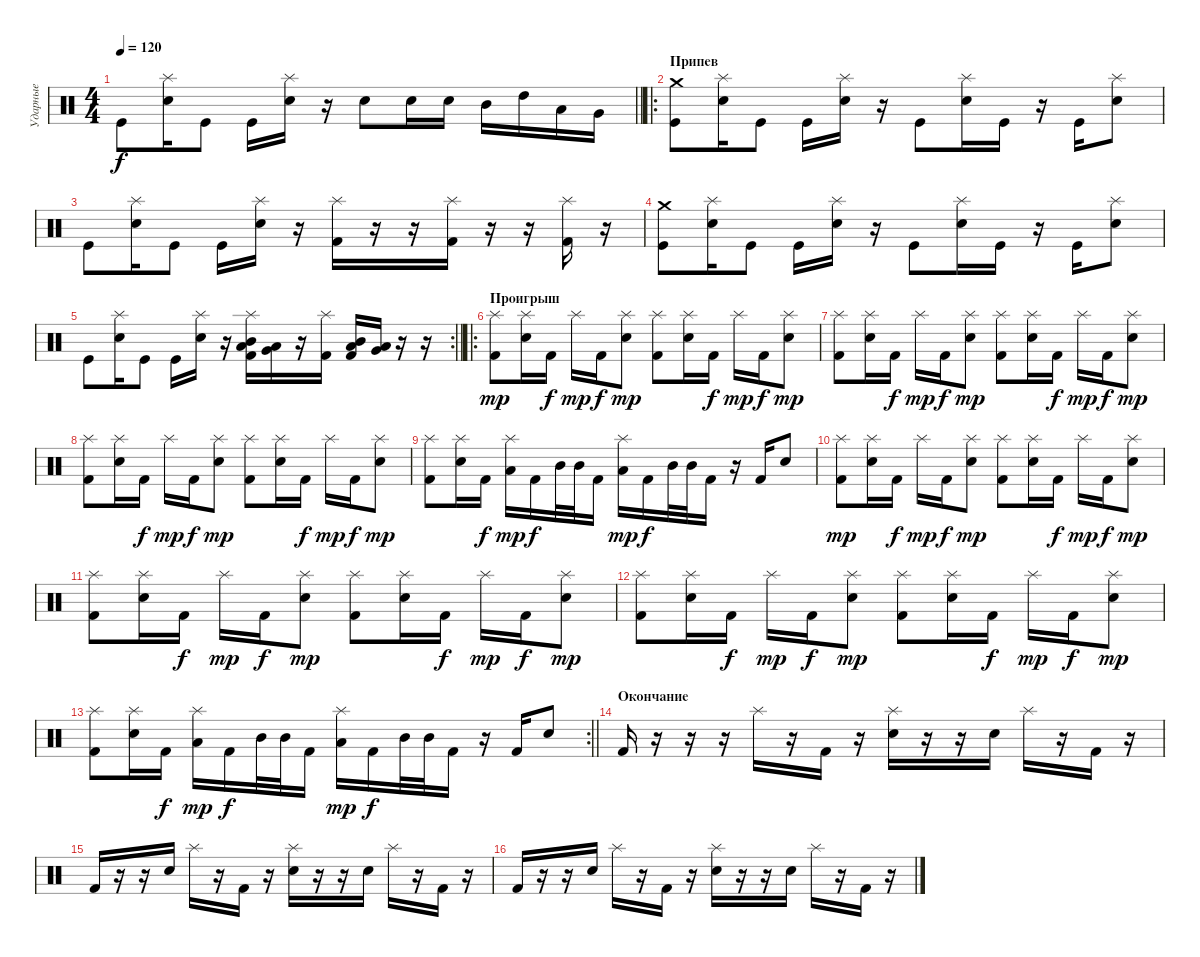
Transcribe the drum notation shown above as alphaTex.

\track ("Ударные" "Ударные") {instrument percussion}
\staff {score}
\articulation defaults
\ts (4 4)
\tempo 120
\clef neutral
\barLineRight lightlight
\ks c "Kick (hit)".8{dy f}
("Splash (hit)" "Electric Snare (hit)").16 "Kick (hit)".8 "Kick (hit)".16 ("Splash (hit)" "Electric Snare (hit)").16 r.16 "Electric Snare (hit)".8 "Electric Snare (hit)".16 "Electric Snare (hit)".16 "Mid Tom (hit)".16 "High Tom (hit)".16 "Low Tom (hit)".16 "Very Low Tom (hit)".16 |
\ro
\section ("" "Припев")
("Crash medium (hit)" "Kick (hit)").8 ("Splash (hit)" "Electric Snare (hit)").16 "Kick (hit)".8 "Kick (hit)".16 ("Splash (hit)" "Electric Snare (hit)").16 r.16 "Kick (hit)".8 ("Splash (hit)" "Electric Snare (hit)").16 "Kick (hit)".16 r.16 "Kick (hit)".16 ("Splash (hit)" "Electric Snare (hit)").8 |
"Kick (hit)".8 ("Splash (hit)" "Electric Snare (hit)").16 "Kick (hit)".8 "Kick (hit)".16 ("Splash (hit)" "Electric Snare (hit)").16 r.16 ("Splash (hit)" "Kick (hit) 2").16 r.16 r.16 ("Splash (hit)" "Kick (hit) 2").16 r.16 r.16 ("Splash (hit)" "Kick (hit) 2").16 r.16 |
("Crash medium (hit)" "Kick (hit)").8 ("Splash (hit)" "Electric Snare (hit)").16 "Kick (hit)".8 "Kick (hit)".16 ("Splash (hit)" "Electric Snare (hit)").16 r.16 "Kick (hit)".8 ("Splash (hit)" "Electric Snare (hit)").16 "Kick (hit)".16 r.16 "Kick (hit)".16 ("Splash (hit)" "Electric Snare (hit)").8 |
\rc 2
\barLineRight lightlight "Kick (hit)".8
("Splash (hit)" "Electric Snare (hit)").16 "Kick (hit)".8 "Kick (hit)".16 ("Splash (hit)" "Electric Snare (hit)").16 r.16 ("Splash (hit)" "Mid Tom (hit)" "Low Tom (hit)" "Kick (hit) 2").16 ("Low Tom (hit)" "Very Low Tom (hit)").16 r.16 ("Splash (hit)" "Kick (hit) 2").16 ("Mid Tom (hit)" "Low Tom (hit)" "Kick (hit) 2").16 ("Low Tom (hit)" "Very Low Tom (hit)").16 r.16 r.16 |
\ro
\section ("" "Проигрыш")
("Splash (hit)" "Kick (hit) 2").8{dy mp} ("Splash (hit)" "Electric Snare (hit)").16 "Kick (hit) 2".16{dy f} "Splash (hit)".16{dy mp} "Kick (hit) 2".16{dy f} ("Splash (hit)" "Electric Snare (hit)").8{dy mp} ("Splash (hit)" "Kick (hit) 2").8 ("Splash (hit)" "Electric Snare (hit)").16 "Kick (hit) 2".16{dy f} "Splash (hit)".16{dy mp} "Kick (hit) 2".16{dy f} ("Splash (hit)" "Electric Snare (hit)").8{dy mp} |
("Splash (hit)" "Kick (hit) 2").8 ("Splash (hit)" "Electric Snare (hit)").16 "Kick (hit) 2".16{dy f} "Splash (hit)".16{dy mp} "Kick (hit) 2".16{dy f} ("Splash (hit)" "Electric Snare (hit)").8{dy mp} ("Splash (hit)" "Kick (hit) 2").8 ("Splash (hit)" "Electric Snare (hit)").16 "Kick (hit) 2".16{dy f} "Splash (hit)".16{dy mp} "Kick (hit) 2".16{dy f} ("Splash (hit)" "Electric Snare (hit)").8{dy mp} |
("Splash (hit)" "Kick (hit) 2").8 ("Splash (hit)" "Electric Snare (hit)").16 "Kick (hit) 2".16{dy f} "Splash (hit)".16{dy mp} "Kick (hit) 2".16{dy f} ("Splash (hit)" "Electric Snare (hit)").8{dy mp} ("Splash (hit)" "Kick (hit) 2").8 ("Splash (hit)" "Electric Snare (hit)").16 "Kick (hit) 2".16{dy f} "Splash (hit)".16{dy mp} "Kick (hit) 2".16{dy f} ("Splash (hit)" "Electric Snare (hit)").8{dy mp} |
("Splash (hit)" "Kick (hit) 2").8 ("Splash (hit)" "Electric Snare (hit)").16 "Kick (hit) 2".16{dy f} ("Splash (hit)" "Low Tom (hit)").16{dy mp} "Kick (hit) 2".16{dy f} "Mid Tom (hit)".32 "Mid Tom (hit)".32 "Kick (hit) 2".16 ("Splash (hit)" "Low Tom (hit)").16{dy mp} "Kick (hit) 2".16{dy f} "Mid Tom (hit)".32 "Mid Tom (hit)".32 "Kick (hit) 2".16 r.16 "Kick (hit) 2".16 "Electric Snare (hit)".8 |
("Splash (hit)" "Kick (hit) 2").8{dy mp} ("Splash (hit)" "Electric Snare (hit)").16 "Kick (hit) 2".16{dy f} "Splash (hit)".16{dy mp} "Kick (hit) 2".16{dy f} ("Splash (hit)" "Electric Snare (hit)").8{dy mp} ("Splash (hit)" "Kick (hit) 2").8 ("Splash (hit)" "Electric Snare (hit)").16 "Kick (hit) 2".16{dy f} "Splash (hit)".16{dy mp} "Kick (hit) 2".16{dy f} ("Splash (hit)" "Electric Snare (hit)").8{dy mp} |
("Splash (hit)" "Kick (hit) 2").8 ("Splash (hit)" "Electric Snare (hit)").16 "Kick (hit) 2".16{dy f} "Splash (hit)".16{dy mp} "Kick (hit) 2".16{dy f} ("Splash (hit)" "Electric Snare (hit)").8{dy mp} ("Splash (hit)" "Kick (hit) 2").8 ("Splash (hit)" "Electric Snare (hit)").16 "Kick (hit) 2".16{dy f} "Splash (hit)".16{dy mp} "Kick (hit) 2".16{dy f} ("Splash (hit)" "Electric Snare (hit)").8{dy mp} |
("Splash (hit)" "Kick (hit) 2").8 ("Splash (hit)" "Electric Snare (hit)").16 "Kick (hit) 2".16{dy f} "Splash (hit)".16{dy mp} "Kick (hit) 2".16{dy f} ("Splash (hit)" "Electric Snare (hit)").8{dy mp} ("Splash (hit)" "Kick (hit) 2").8 ("Splash (hit)" "Electric Snare (hit)").16 "Kick (hit) 2".16{dy f} "Splash (hit)".16{dy mp} "Kick (hit) 2".16{dy f} ("Splash (hit)" "Electric Snare (hit)").8{dy mp} |
\rc 2
\barLineRight lightlight
("Splash (hit)" "Kick (hit) 2").8 ("Splash (hit)" "Electric Snare (hit)").16 "Kick (hit) 2".16{dy f} ("Splash (hit)" "Low Tom (hit)").16{dy mp} "Kick (hit) 2".16{dy f} "Mid Tom (hit)".32 "Mid Tom (hit)".32 "Kick (hit) 2".16 ("Splash (hit)" "Low Tom (hit)").16{dy mp} "Kick (hit) 2".16{dy f} "Mid Tom (hit)".32 "Mid Tom (hit)".32 "Kick (hit) 2".16 r.16 "Kick (hit) 2".16 "Electric Snare (hit)".8 |
\section ("" "Окончание")
"Kick (hit) 2".16 r.16 r.16 r.16 "Splash (hit)".16 r.16 "Kick (hit) 2".16 r.16 ("Splash (hit)" "Electric Snare (hit)").16 r.16 r.16 "Electric Snare (hit)".16 "Splash (hit)".16 r.16 "Kick (hit) 2".16 r.16 |
"Kick (hit) 2".16 r.16 r.16 "Electric Snare (hit)".16 "Splash (hit)".16 r.16 "Kick (hit) 2".16 r.16 ("Splash (hit)" "Electric Snare (hit)").16 r.16 r.16 "Electric Snare (hit)".16 "Splash (hit)".16 r.16 "Kick (hit) 2".16 r.16 |
"Kick (hit) 2".16 r.16 r.16 "Electric Snare (hit)".16 "Splash (hit)".16 r.16 "Kick (hit) 2".16 r.16 ("Splash (hit)" "Electric Snare (hit)").16 r.16 r.16 "Electric Snare (hit)".16 "Splash (hit)".16 r.16 "Kick (hit) 2".16 r.16
